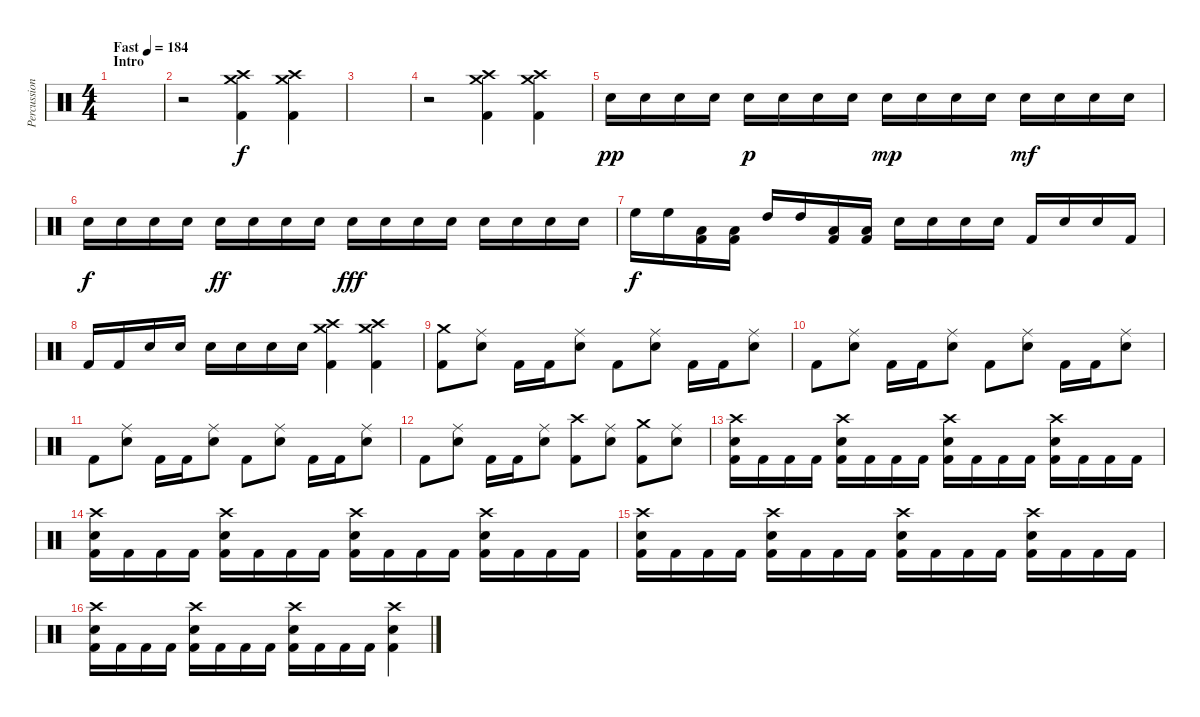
\track ("Percussion" "Percussion") {instrument percussion}
\staff {score}
\articulation defaults
\ts (4 4)
\section ("" "Intro")
\tempo (184 "Fast")
\clef neutral
\ks c
|
r.2 ("Crash medium (hit)" "Crash high (hit)" "Kick (hit) 2").4 ("Crash medium (hit)" "Crash high (hit)" "Kick (hit) 2").4 |
|
r.2 ("Crash medium (hit)" "Crash high (hit)" "Kick (hit) 2").4 ("Crash medium (hit)" "Crash high (hit)" "Kick (hit) 2").4 |
"Electric Snare (hit)".16{dy pp} "Electric Snare (hit)".16 "Electric Snare (hit)".16 "Electric Snare (hit)".16 "Electric Snare (hit)".16{dy p} "Electric Snare (hit)".16 "Electric Snare (hit)".16 "Electric Snare (hit)".16 "Electric Snare (hit)".16{dy mp} "Electric Snare (hit)".16 "Electric Snare (hit)".16 "Electric Snare (hit)".16 "Electric Snare (hit)".16{dy mf} "Electric Snare (hit)".16 "Electric Snare (hit)".16 "Electric Snare (hit)".16 |
"Electric Snare (hit)".16{dy f} "Electric Snare (hit)".16 "Electric Snare (hit)".16 "Electric Snare (hit)".16 "Electric Snare (hit)".16{dy ff} "Electric Snare (hit)".16 "Electric Snare (hit)".16 "Electric Snare (hit)".16 "Electric Snare (hit)".16{dy fff} "Electric Snare (hit)".16 "Electric Snare (hit)".16 "Electric Snare (hit)".16 "Electric Snare (hit)".16 "Electric Snare (hit)".16 "Electric Snare (hit)".16 "Electric Snare (hit)".16 |
"High Floor Tom (hit)".16{dy f} "High Floor Tom (hit)".16 ("Low Tom (hit)" "Kick (hit) 2").16 ("Low Tom (hit)" "Kick (hit) 2").16 "High Tom (hit)".16 "High Tom (hit)".16 ("Low Tom (hit)" "Kick (hit) 2").16 ("Low Tom (hit)" "Kick (hit) 2").16 "Electric Snare (hit)".16 "Electric Snare (hit)".16 "Electric Snare (hit)".16 "Electric Snare (hit)".16 "Kick (hit) 2".16 "Electric Snare (hit)".16 "Electric Snare (hit)".16 "Kick (hit) 2".16 |
"Kick (hit) 2".16 "Kick (hit) 2".16 "Electric Snare (hit)".16 "Electric Snare (hit)".16 "Electric Snare (hit)".16 "Electric Snare (hit)".16 "Electric Snare (hit)".16 "Electric Snare (hit)".16 ("Crash medium (hit)" "Crash high (hit)" "Kick (hit) 2").4 ("Crash medium (hit)" "Crash high (hit)" "Kick (hit) 2").4 |
("Crash medium (hit)" "Kick (hit) 2").8 ("Ride (middle)" "Electric Snare (hit)").8 "Kick (hit) 2".16 "Kick (hit) 2".16 ("Ride (middle)" "Electric Snare (hit)").8 "Kick (hit) 2".8 ("Ride (middle)" "Electric Snare (hit)").8 "Kick (hit) 2".16 "Kick (hit) 2".16 ("Ride (middle)" "Electric Snare (hit)").8 |
"Kick (hit) 2".8 ("Ride (middle)" "Electric Snare (hit)").8 "Kick (hit) 2".16 "Kick (hit) 2".16 ("Ride (middle)" "Electric Snare (hit)").8 "Kick (hit) 2".8 ("Ride (middle)" "Electric Snare (hit)").8 "Kick (hit) 2".16 "Kick (hit) 2".16 ("Ride (middle)" "Electric Snare (hit)").8 |
"Kick (hit) 2".8 ("Ride (middle)" "Electric Snare (hit)").8 "Kick (hit) 2".16 "Kick (hit) 2".16 ("Ride (middle)" "Electric Snare (hit)").8 "Kick (hit) 2".8 ("Ride (middle)" "Electric Snare (hit)").8 "Kick (hit) 2".16 "Kick (hit) 2".16 ("Ride (middle)" "Electric Snare (hit)").8 |
"Kick (hit) 2".8 ("Ride (middle)" "Electric Snare (hit)").8 "Kick (hit) 2".16 "Kick (hit) 2".16 ("Ride (middle)" "Electric Snare (hit)").8 ("Crash high (hit)" "Kick (hit) 2").8 ("Ride (middle)" "Electric Snare (hit)").8 ("Crash medium (hit)" "Kick (hit) 2").8 ("Ride (middle)" "Electric Snare (hit)").8 |
("Crash high (hit)" "Electric Snare (hit)" "Kick (hit) 2").16 "Kick (hit) 2".16 "Kick (hit) 2".16 "Kick (hit) 2".16 ("Crash high (hit)" "Electric Snare (hit)" "Kick (hit) 2").16 "Kick (hit) 2".16 "Kick (hit) 2".16 "Kick (hit) 2".16 ("Crash high (hit)" "Electric Snare (hit)" "Kick (hit) 2").16 "Kick (hit) 2".16 "Kick (hit) 2".16 "Kick (hit) 2".16 ("Crash high (hit)" "Electric Snare (hit)" "Kick (hit) 2").16 "Kick (hit) 2".16 "Kick (hit) 2".16 "Kick (hit) 2".16 |
("Crash high (hit)" "Electric Snare (hit)" "Kick (hit) 2").16 "Kick (hit) 2".16 "Kick (hit) 2".16 "Kick (hit) 2".16 ("Crash high (hit)" "Electric Snare (hit)" "Kick (hit) 2").16 "Kick (hit) 2".16 "Kick (hit) 2".16 "Kick (hit) 2".16 ("Crash high (hit)" "Electric Snare (hit)" "Kick (hit) 2").16 "Kick (hit) 2".16 "Kick (hit) 2".16 "Kick (hit) 2".16 ("Crash high (hit)" "Electric Snare (hit)" "Kick (hit) 2").16 "Kick (hit) 2".16 "Kick (hit) 2".16 "Kick (hit) 2".16 |
("Crash high (hit)" "Electric Snare (hit)" "Kick (hit) 2").16 "Kick (hit) 2".16 "Kick (hit) 2".16 "Kick (hit) 2".16 ("Crash high (hit)" "Electric Snare (hit)" "Kick (hit) 2").16 "Kick (hit) 2".16 "Kick (hit) 2".16 "Kick (hit) 2".16 ("Crash high (hit)" "Electric Snare (hit)" "Kick (hit) 2").16 "Kick (hit) 2".16 "Kick (hit) 2".16 "Kick (hit) 2".16 ("Crash high (hit)" "Electric Snare (hit)" "Kick (hit) 2").16 "Kick (hit) 2".16 "Kick (hit) 2".16 "Kick (hit) 2".16 |
("Crash high (hit)" "Electric Snare (hit)" "Kick (hit) 2").16 "Kick (hit) 2".16 "Kick (hit) 2".16 "Kick (hit) 2".16 ("Crash high (hit)" "Electric Snare (hit)" "Kick (hit) 2").16 "Kick (hit) 2".16 "Kick (hit) 2".16 "Kick (hit) 2".16 ("Crash high (hit)" "Electric Snare (hit)" "Kick (hit) 2").16 "Kick (hit) 2".16 "Kick (hit) 2".16 "Kick (hit) 2".16 ("Crash high (hit)" "Electric Snare (hit)" "Kick (hit) 2").4
